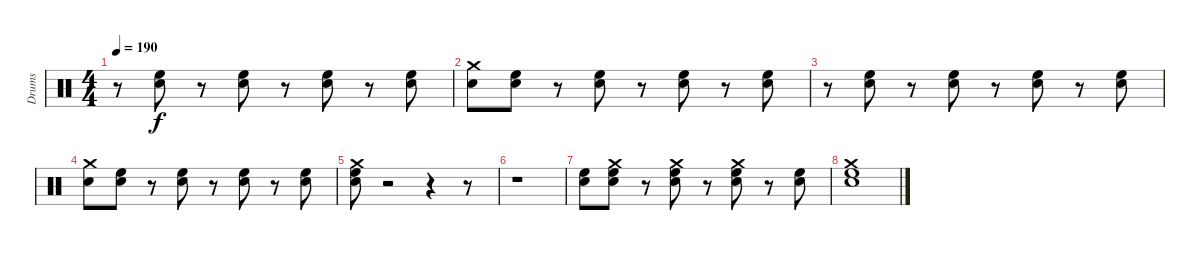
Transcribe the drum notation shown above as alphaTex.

\track ("Drums" "Drums") {instrument percussion}
\staff {score}
\articulation defaults
\ts (4 4)
\tempo 190
\clef neutral
\ks c
r.8{dy f} ("Electric Snare (hit)" "High Floor Tom (hit)").8 r.8 ("Electric Snare (hit)" "High Floor Tom (hit)").8 r.8 ("Electric Snare (hit)" "High Floor Tom (hit)").8 r.8 ("Electric Snare (hit)" "High Floor Tom (hit)").8 |
("Electric Snare (hit)" "Crash medium (hit)").8 ("Electric Snare (hit)" "High Floor Tom (hit)").8 r.8 ("Electric Snare (hit)" "High Floor Tom (hit)").8 r.8 ("Electric Snare (hit)" "High Floor Tom (hit)").8 r.8 ("Electric Snare (hit)" "High Floor Tom (hit)").8 |
r.8 ("Electric Snare (hit)" "High Floor Tom (hit)").8 r.8 ("Electric Snare (hit)" "High Floor Tom (hit)").8 r.8 ("Electric Snare (hit)" "High Floor Tom (hit)").8 r.8 ("Electric Snare (hit)" "High Floor Tom (hit)").8 |
("Electric Snare (hit)" "Crash medium (hit)").8 ("High Floor Tom (hit)" "Electric Snare (hit)").8 r.8 ("Electric Snare (hit)" "High Floor Tom (hit)").8 r.8 ("Electric Snare (hit)" "High Floor Tom (hit)").8 r.8 ("Electric Snare (hit)" "High Floor Tom (hit)").8 |
("High Floor Tom (hit)" "Electric Snare (hit)" "Crash medium (hit)").8 r.2 r.4 r.8 |
r.1 |
("Electric Snare (hit)" "High Floor Tom (hit)").8 ("Electric Snare (hit)" "High Floor Tom (hit)" "Crash medium (hit)").8 r.8 ("Electric Snare (hit)" "High Floor Tom (hit)" "Crash medium (hit)").8 r.8 ("Crash medium (hit)" "High Floor Tom (hit)" "Electric Snare (hit)").8 r.8 ("Electric Snare (hit)" "High Floor Tom (hit)").8 |
("Electric Snare (hit)" "High Floor Tom (hit)" "Crash medium (hit)").1
